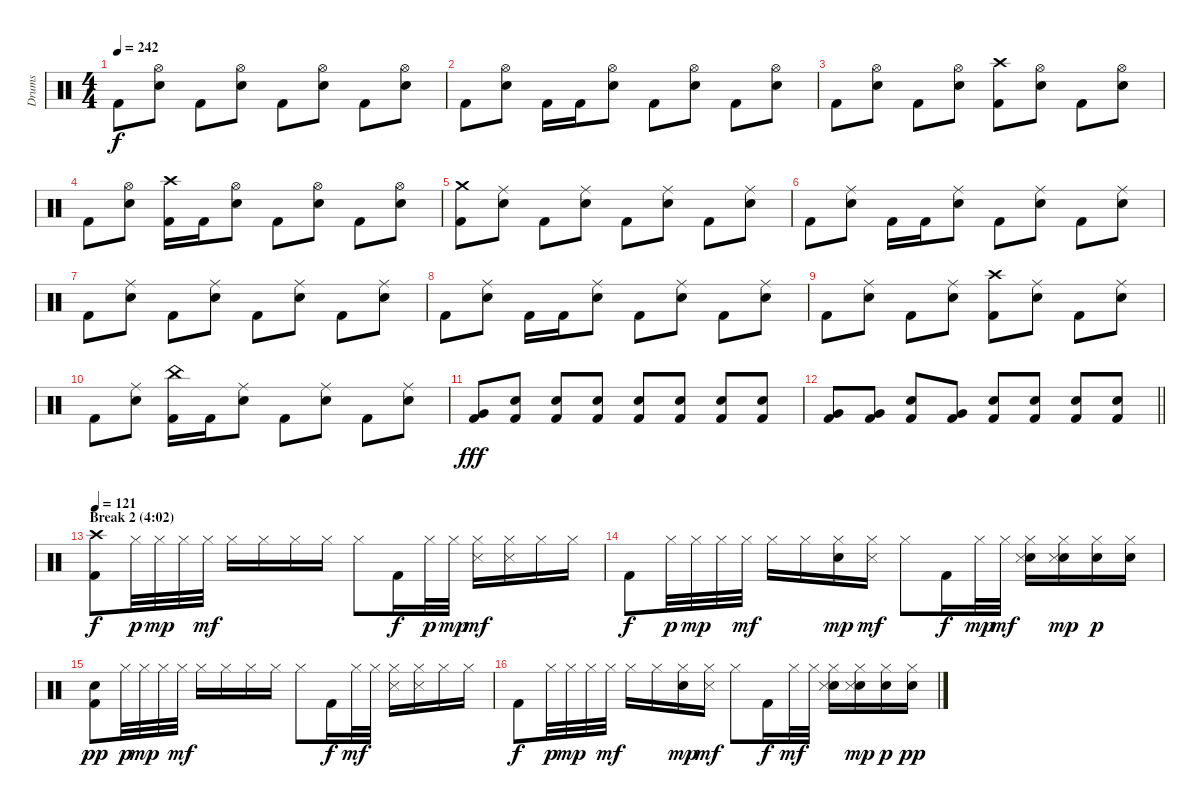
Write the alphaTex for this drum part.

\track ("Drums" "Drums") {instrument percussion}
\staff {score}
\articulation defaults
\ts (4 4)
\tempo 242
\clef neutral
\ks c "Kick (hit) 2".8{dy f}
("Hi-Hat (open)" "Electric Snare (hit)").8 "Kick (hit) 2".8 ("Hi-Hat (open)" "Electric Snare (hit)").8 "Kick (hit) 2".8 ("Hi-Hat (open)" "Electric Snare (hit)").8 "Kick (hit) 2".8 ("Hi-Hat (open)" "Electric Snare (hit)").8 |
"Kick (hit) 2".8 ("Hi-Hat (open)" "Electric Snare (hit)").8 "Kick (hit) 2".16 "Kick (hit) 2".16 ("Hi-Hat (open)" "Electric Snare (hit)").8 "Kick (hit) 2".8 ("Hi-Hat (open)" "Electric Snare (hit)").8 "Kick (hit) 2".8 ("Hi-Hat (open)" "Electric Snare (hit)").8 |
"Kick (hit) 2".8 ("Hi-Hat (open)" "Electric Snare (hit)").8 "Kick (hit) 2".8 ("Hi-Hat (open)" "Electric Snare (hit)").8 ("Crash high (hit)" "Kick (hit) 2").8 ("Hi-Hat (open)" "Electric Snare (hit)").8 "Kick (hit) 2".8 ("Hi-Hat (open)" "Electric Snare (hit)").8 |
"Kick (hit) 2".8 ("Hi-Hat (open)" "Electric Snare (hit)").8 ("Crash high (hit)" "Kick (hit) 2").16 "Kick (hit) 2".16 ("Hi-Hat (open)" "Electric Snare (hit)").8 "Kick (hit) 2".8 ("Hi-Hat (open)" "Electric Snare (hit)").8 "Kick (hit) 2".8 ("Hi-Hat (open)" "Electric Snare (hit)").8 |
("Crash medium (hit)" "Kick (hit) 2").8 ("Ride (middle)" "Electric Snare (hit)").8 "Kick (hit) 2".8 ("Ride (middle)" "Electric Snare (hit)").8 "Kick (hit) 2".8 ("Ride (middle)" "Electric Snare (hit)").8 "Kick (hit) 2".8 ("Ride (middle)" "Electric Snare (hit)").8 |
"Kick (hit) 2".8 ("Ride (middle)" "Electric Snare (hit)").8 "Kick (hit) 2".16 "Kick (hit) 2".16 ("Ride (middle)" "Electric Snare (hit)").8 "Kick (hit) 2".8 ("Ride (middle)" "Electric Snare (hit)").8 "Kick (hit) 2".8 ("Ride (middle)" "Electric Snare (hit)").8 |
"Kick (hit) 2".8 ("Ride (middle)" "Electric Snare (hit)").8 "Kick (hit) 2".8 ("Ride (middle)" "Electric Snare (hit)").8 "Kick (hit) 2".8 ("Ride (middle)" "Electric Snare (hit)").8 "Kick (hit) 2".8 ("Ride (middle)" "Electric Snare (hit)").8 |
"Kick (hit) 2".8 ("Ride (middle)" "Electric Snare (hit)").8 "Kick (hit) 2".16 "Kick (hit) 2".16 ("Ride (middle)" "Electric Snare (hit)").8 "Kick (hit) 2".8 ("Ride (middle)" "Electric Snare (hit)").8 "Kick (hit) 2".8 ("Ride (middle)" "Electric Snare (hit)").8 |
"Kick (hit) 2".8 ("Ride (middle)" "Electric Snare (hit)").8 "Kick (hit) 2".8 ("Ride (middle)" "Electric Snare (hit)").8 ("Crash high (hit)" "Kick (hit) 2").8 ("Ride (middle)" "Electric Snare (hit)").8 "Kick (hit) 2".8 ("Ride (middle)" "Electric Snare (hit)").8 |
"Kick (hit) 2".8 ("Ride (middle)" "Electric Snare (hit)").8 ("China (hit)" "Kick (hit) 2").16 "Kick (hit) 2".16 ("Ride (middle)" "Electric Snare (hit)").8 "Kick (hit) 2".8 ("Ride (middle)" "Electric Snare (hit)").8 "Kick (hit) 2".8 ("Ride (middle)" "Electric Snare (hit)").8 |
("Very Low Tom (hit)" "Kick (hit) 2").8{dy fff} ("Electric Snare (hit)" "Kick (hit) 2").8 ("Electric Snare (hit)" "Kick (hit) 2").8 ("Electric Snare (hit)" "Kick (hit) 2").8 ("Electric Snare (hit)" "Kick (hit) 2").8 ("Electric Snare (hit)" "Kick (hit) 2").8 ("Electric Snare (hit)" "Kick (hit) 2").8 ("Electric Snare (hit)" "Kick (hit) 2").8 |
\barLineRight lightlight
("Very Low Tom (hit)" "Kick (hit) 2").8 ("Very Low Tom (hit)" "Kick (hit) 2").8 ("Electric Snare (hit)" "Kick (hit) 2").8 ("Very Low Tom (hit)" "Kick (hit) 2").8 ("Electric Snare (hit)" "Kick (hit) 2").8 ("Electric Snare (hit)" "Kick (hit) 2").8 ("Electric Snare (hit)" "Kick (hit) 2").8 ("Electric Snare (hit)" "Kick (hit) 2").8 |
\section ("" "Break 2 (4:02)")
\tempo 121
("Crash high (hit)" "Kick (hit) 2").8{dy f volume 9} "Hi-Hat (closed)".32{dy p} "Hi-Hat (closed)".32{dy mp} "Hi-Hat (closed)".32 "Hi-Hat (closed)".32{dy mf} "Hi-Hat (closed)".16 "Hi-Hat (closed)".16 "Hi-Hat (closed)".16 "Hi-Hat (closed)".16 "Hi-Hat (closed)".8 "Kick (hit) 2".16{dy f} "Hi-Hat (closed)".32{dy p} "Hi-Hat (closed)".32{dy mp} ("Hi-Hat (closed)" "Snare (side stick) 3").16{dy mf} ("Hi-Hat (closed)" "Snare (side stick) 3").16 "Hi-Hat (closed)".16 "Hi-Hat (closed)".16 |
"Kick (hit) 2".8{dy f} "Hi-Hat (closed)".32{dy p} "Hi-Hat (closed)".32{dy mp} "Hi-Hat (closed)".32 "Hi-Hat (closed)".32{dy mf} "Hi-Hat (closed)".16 "Hi-Hat (closed)".16 ("Hi-Hat (closed)" "Snare (hit) 2").16{dy mp} ("Hi-Hat (closed)" "Snare (side stick) 3").16{dy mf} "Hi-Hat (closed)".8 "Kick (hit) 2".16{dy f} "Hi-Hat (closed)".32{dy mp} "Hi-Hat (closed)".32{dy mf} ("Hi-Hat (closed)" "Snare (hit) 2" "Snare (side stick) 3").16 ("Hi-Hat (closed)" "Snare (hit) 2" "Snare (side stick) 3").16{dy mp} ("Hi-Hat (closed)" "Snare (hit) 2").16{dy p} ("Hi-Hat (closed)" "Snare (hit) 2").16 |
("Snare (hit) 2" "Kick (hit) 2").8{dy pp} "Hi-Hat (closed)".32{dy p} "Hi-Hat (closed)".32{dy mp} "Hi-Hat (closed)".32 "Hi-Hat (closed)".32{dy mf} "Hi-Hat (closed)".16 "Hi-Hat (closed)".16 "Hi-Hat (closed)".16 "Hi-Hat (closed)".16 "Hi-Hat (closed)".8 "Kick (hit) 2".16{dy f} "Hi-Hat (closed)".32{dy mf} "Hi-Hat (closed)".32 ("Hi-Hat (closed)" "Snare (side stick) 3").16 ("Hi-Hat (closed)" "Snare (side stick) 3").16 "Hi-Hat (closed)".16 "Hi-Hat (closed)".16 |
"Kick (hit) 2".8{dy f} "Hi-Hat (closed)".32{dy p} "Hi-Hat (closed)".32{dy mp} "Hi-Hat (closed)".32 "Hi-Hat (closed)".32{dy mf} "Hi-Hat (closed)".16 "Hi-Hat (closed)".16 ("Hi-Hat (closed)" "Snare (hit) 2").16{dy mp} ("Hi-Hat (closed)" "Snare (side stick) 3").16{dy mf} "Hi-Hat (closed)".8 "Kick (hit) 2".16{dy f} "Hi-Hat (closed)".32{dy mf} "Hi-Hat (closed)".32 ("Hi-Hat (closed)" "Snare (hit) 2" "Snare (side stick) 3").16 ("Hi-Hat (closed)" "Snare (hit) 2" "Snare (side stick) 3").16{dy mp} ("Hi-Hat (closed)" "Snare (hit) 2").16{dy p} ("Hi-Hat (closed)" "Snare (hit) 2").16{dy pp}
